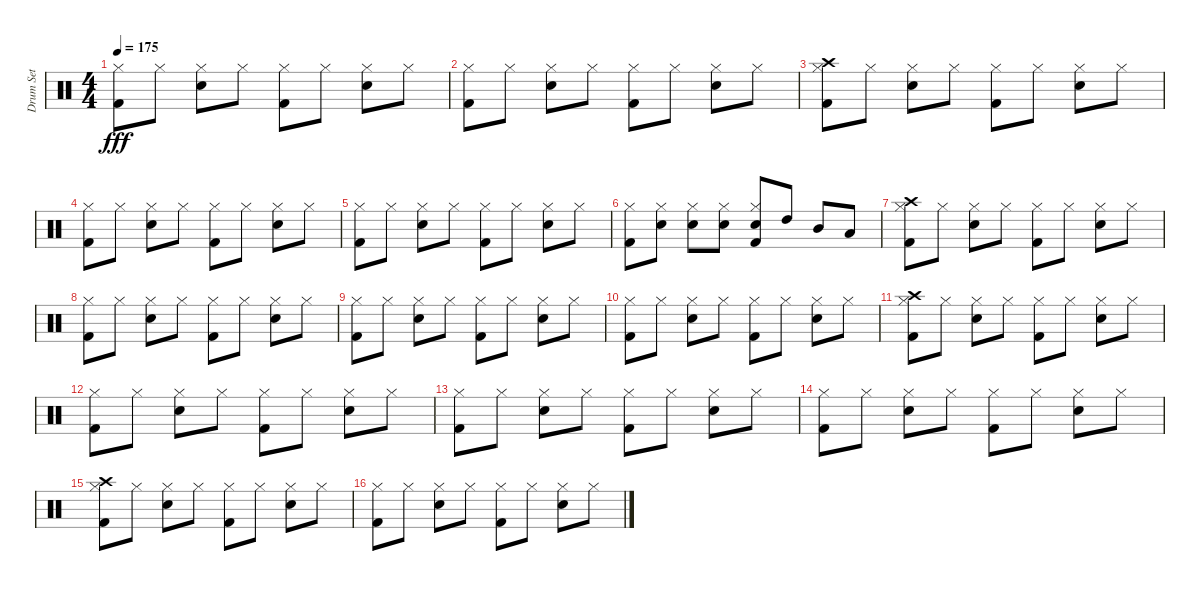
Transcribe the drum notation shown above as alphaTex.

\track ("Drum Set" "Drum Set") {instrument percussion}
\staff {score}
\articulation defaults
\ts (4 4)
\tempo 175
\clef neutral
\ks c
("Kick (hit) 2" "Hi-Hat (closed)").8{dy fff} "Hi-Hat (closed)".8 ("Electric Snare (hit)" "Hi-Hat (closed)").8 "Hi-Hat (closed)".8 ("Kick (hit) 2" "Hi-Hat (closed)").8 "Hi-Hat (closed)".8 ("Electric Snare (hit)" "Hi-Hat (closed)").8 "Hi-Hat (closed)".8 |
("Kick (hit) 2" "Hi-Hat (closed)").8 "Hi-Hat (closed)".8 ("Electric Snare (hit)" "Hi-Hat (closed)").8 "Hi-Hat (closed)".8 ("Kick (hit) 2" "Hi-Hat (closed)").8 "Hi-Hat (closed)".8 ("Electric Snare (hit)" "Hi-Hat (closed)").8 "Hi-Hat (closed)".8 |
("Kick (hit) 2" "Hi-Hat (closed)" "Crash high (hit)").8 "Hi-Hat (closed)".8 ("Electric Snare (hit)" "Hi-Hat (closed)").8 "Hi-Hat (closed)".8 ("Kick (hit) 2" "Hi-Hat (closed)").8 "Hi-Hat (closed)".8 ("Electric Snare (hit)" "Hi-Hat (closed)").8 "Hi-Hat (closed)".8 |
("Kick (hit) 2" "Hi-Hat (closed)").8 "Hi-Hat (closed)".8 ("Electric Snare (hit)" "Hi-Hat (closed)").8 "Hi-Hat (closed)".8 ("Kick (hit) 2" "Hi-Hat (closed)").8 "Hi-Hat (closed)".8 ("Electric Snare (hit)" "Hi-Hat (closed)").8 "Hi-Hat (closed)".8 |
("Kick (hit) 2" "Hi-Hat (closed)").8 "Hi-Hat (closed)".8 ("Electric Snare (hit)" "Hi-Hat (closed)").8 "Hi-Hat (closed)".8 ("Kick (hit) 2" "Hi-Hat (closed)").8 "Hi-Hat (closed)".8 ("Electric Snare (hit)" "Hi-Hat (closed)").8 "Hi-Hat (closed)".8 |
("Kick (hit) 2" "Hi-Hat (closed)").8 ("Electric Snare (hit)" "Hi-Hat (closed)").8 ("Electric Snare (hit)" "Hi-Hat (closed)").8 ("Hi-Hat (closed)" "Electric Snare (hit)").8 ("Electric Snare (hit)" "Kick (hit) 2" "Hi-Hat (closed)").8 "High Tom (hit)".8 "Mid Tom (hit)".8 "Low Tom (hit)".8 |
("Kick (hit) 2" "Hi-Hat (closed)" "Crash high (hit)").8 "Hi-Hat (closed)".8 ("Electric Snare (hit)" "Hi-Hat (closed)").8 "Hi-Hat (closed)".8 ("Kick (hit) 2" "Hi-Hat (closed)").8 "Hi-Hat (closed)".8 ("Electric Snare (hit)" "Hi-Hat (closed)").8 "Hi-Hat (closed)".8 |
("Kick (hit) 2" "Hi-Hat (closed)").8 "Hi-Hat (closed)".8 ("Electric Snare (hit)" "Hi-Hat (closed)").8 "Hi-Hat (closed)".8 ("Kick (hit) 2" "Hi-Hat (closed)").8 "Hi-Hat (closed)".8 ("Electric Snare (hit)" "Hi-Hat (closed)").8 "Hi-Hat (closed)".8 |
("Kick (hit) 2" "Hi-Hat (closed)").8 "Hi-Hat (closed)".8 ("Electric Snare (hit)" "Hi-Hat (closed)").8 "Hi-Hat (closed)".8 ("Kick (hit) 2" "Hi-Hat (closed)").8 "Hi-Hat (closed)".8 ("Electric Snare (hit)" "Hi-Hat (closed)").8 "Hi-Hat (closed)".8 |
("Kick (hit) 2" "Hi-Hat (closed)").8 "Hi-Hat (closed)".8 ("Electric Snare (hit)" "Hi-Hat (closed)").8 "Hi-Hat (closed)".8 ("Kick (hit) 2" "Hi-Hat (closed)").8 "Hi-Hat (closed)".8 ("Electric Snare (hit)" "Hi-Hat (closed)").8 "Hi-Hat (closed)".8 |
("Kick (hit) 2" "Hi-Hat (closed)" "Crash high (hit)").8 "Hi-Hat (closed)".8 ("Electric Snare (hit)" "Hi-Hat (closed)").8 "Hi-Hat (closed)".8 ("Kick (hit) 2" "Hi-Hat (closed)").8 "Hi-Hat (closed)".8 ("Electric Snare (hit)" "Hi-Hat (closed)").8 "Hi-Hat (closed)".8 |
("Kick (hit) 2" "Hi-Hat (closed)").8 "Hi-Hat (closed)".8 ("Electric Snare (hit)" "Hi-Hat (closed)").8 "Hi-Hat (closed)".8 ("Kick (hit) 2" "Hi-Hat (closed)").8 "Hi-Hat (closed)".8 ("Electric Snare (hit)" "Hi-Hat (closed)").8 "Hi-Hat (closed)".8 |
("Kick (hit) 2" "Hi-Hat (closed)").8 "Hi-Hat (closed)".8 ("Electric Snare (hit)" "Hi-Hat (closed)").8 "Hi-Hat (closed)".8 ("Kick (hit) 2" "Hi-Hat (closed)").8 "Hi-Hat (closed)".8 ("Electric Snare (hit)" "Hi-Hat (closed)").8 "Hi-Hat (closed)".8 |
("Kick (hit) 2" "Hi-Hat (closed)").8 "Hi-Hat (closed)".8 ("Electric Snare (hit)" "Hi-Hat (closed)").8 "Hi-Hat (closed)".8 ("Kick (hit) 2" "Hi-Hat (closed)").8 "Hi-Hat (closed)".8 ("Electric Snare (hit)" "Hi-Hat (closed)").8 "Hi-Hat (closed)".8 |
("Kick (hit) 2" "Crash high (hit)" "Hi-Hat (closed)").8 "Hi-Hat (closed)".8 ("Electric Snare (hit)" "Hi-Hat (closed)").8 "Hi-Hat (closed)".8 ("Kick (hit) 2" "Hi-Hat (closed)").8 "Hi-Hat (closed)".8 ("Electric Snare (hit)" "Hi-Hat (closed)").8 "Hi-Hat (closed)".8 |
("Kick (hit) 2" "Hi-Hat (closed)").8 "Hi-Hat (closed)".8 ("Electric Snare (hit)" "Hi-Hat (closed)").8 "Hi-Hat (closed)".8 ("Kick (hit) 2" "Hi-Hat (closed)").8 "Hi-Hat (closed)".8 ("Electric Snare (hit)" "Hi-Hat (closed)").8 "Hi-Hat (closed)".8
